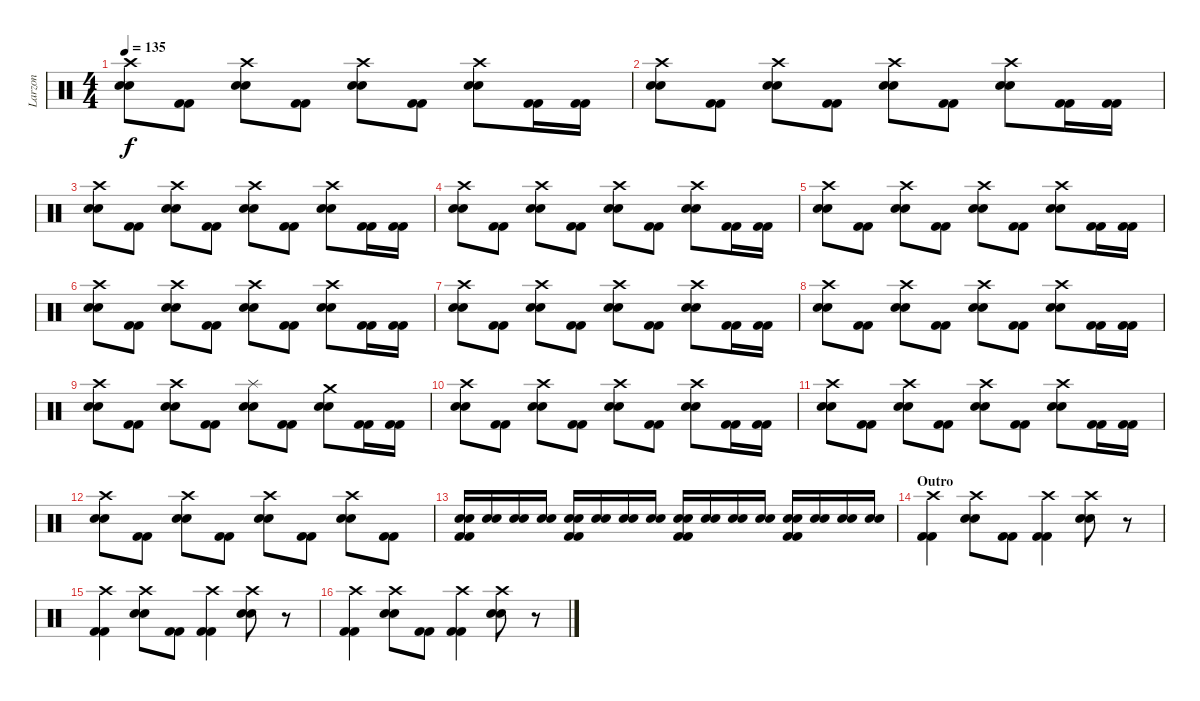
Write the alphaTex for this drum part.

\track ("Larzon" "Larzon") {instrument percussion}
\staff {score}
\articulation defaults
\ts (4 4)
\tempo 135
\clef neutral
\ks c
("Crash high (hit)" "Electric Snare (hit)" "Electric Snare (hit)").8{dy f} ("Kick (hit) 2" "Kick (hit) 2").8 ("Crash high (hit)" "Electric Snare (hit)" "Electric Snare (hit)").8 ("Kick (hit) 2" "Kick (hit) 2").8 ("Crash high (hit)" "Electric Snare (hit)" "Electric Snare (hit)").8 ("Kick (hit) 2" "Kick (hit) 2").8 ("Crash high (hit)" "Electric Snare (hit)" "Electric Snare (hit)").8 ("Kick (hit) 2" "Kick (hit) 2").16 ("Kick (hit) 2" "Kick (hit) 2").16 |
("Crash high (hit)" "Electric Snare (hit)" "Electric Snare (hit)").8 ("Kick (hit) 2" "Kick (hit) 2").8 ("Crash high (hit)" "Electric Snare (hit)" "Electric Snare (hit)").8 ("Kick (hit) 2" "Kick (hit) 2").8 ("Crash high (hit)" "Electric Snare (hit)" "Electric Snare (hit)").8 ("Kick (hit) 2" "Kick (hit) 2").8 ("Crash high (hit)" "Electric Snare (hit)" "Electric Snare (hit)").8 ("Kick (hit) 2" "Kick (hit) 2").16 ("Kick (hit) 2" "Kick (hit) 2").16 |
("Crash high (hit)" "Electric Snare (hit)" "Electric Snare (hit)").8 ("Kick (hit) 2" "Kick (hit) 2").8 ("Crash high (hit)" "Electric Snare (hit)" "Electric Snare (hit)").8 ("Kick (hit) 2" "Kick (hit) 2").8 ("Crash high (hit)" "Electric Snare (hit)" "Electric Snare (hit)").8 ("Kick (hit) 2" "Kick (hit) 2").8 ("Crash high (hit)" "Electric Snare (hit)" "Electric Snare (hit)").8 ("Kick (hit) 2" "Kick (hit) 2").16 ("Kick (hit) 2" "Kick (hit) 2").16 |
("Crash high (hit)" "Electric Snare (hit)" "Electric Snare (hit)").8 ("Kick (hit) 2" "Kick (hit) 2").8 ("Crash high (hit)" "Electric Snare (hit)" "Electric Snare (hit)").8 ("Kick (hit) 2" "Kick (hit) 2").8 ("Crash high (hit)" "Electric Snare (hit)" "Electric Snare (hit)").8 ("Kick (hit) 2" "Kick (hit) 2").8 ("Crash high (hit)" "Electric Snare (hit)" "Electric Snare (hit)").8 ("Kick (hit) 2" "Kick (hit) 2").16 ("Kick (hit) 2" "Kick (hit) 2").16 |
("Crash high (hit)" "Electric Snare (hit)" "Electric Snare (hit)").8 ("Kick (hit) 2" "Kick (hit) 2").8 ("Crash high (hit)" "Electric Snare (hit)" "Electric Snare (hit)").8 ("Kick (hit) 2" "Kick (hit) 2").8 ("Crash high (hit)" "Electric Snare (hit)" "Electric Snare (hit)").8 ("Kick (hit) 2" "Kick (hit) 2").8 ("Crash high (hit)" "Electric Snare (hit)" "Electric Snare (hit)").8 ("Kick (hit) 2" "Kick (hit) 2").16 ("Kick (hit) 2" "Kick (hit) 2").16 |
("Crash high (hit)" "Electric Snare (hit)" "Electric Snare (hit)").8 ("Kick (hit) 2" "Kick (hit) 2").8 ("Crash high (hit)" "Electric Snare (hit)" "Electric Snare (hit)").8 ("Kick (hit) 2" "Kick (hit) 2").8 ("Crash high (hit)" "Electric Snare (hit)" "Electric Snare (hit)").8 ("Kick (hit) 2" "Kick (hit) 2").8 ("Crash high (hit)" "Electric Snare (hit)" "Electric Snare (hit)").8 ("Kick (hit) 2" "Kick (hit) 2").16 ("Kick (hit) 2" "Kick (hit) 2").16 |
("Crash high (hit)" "Electric Snare (hit)" "Electric Snare (hit)").8 ("Kick (hit) 2" "Kick (hit) 2").8 ("Crash high (hit)" "Electric Snare (hit)" "Electric Snare (hit)").8 ("Kick (hit) 2" "Kick (hit) 2").8 ("Crash high (hit)" "Electric Snare (hit)" "Electric Snare (hit)").8 ("Kick (hit) 2" "Kick (hit) 2").8 ("Crash high (hit)" "Electric Snare (hit)" "Electric Snare (hit)").8 ("Kick (hit) 2" "Kick (hit) 2").16 ("Kick (hit) 2" "Kick (hit) 2").16 |
("Crash high (hit)" "Electric Snare (hit)" "Electric Snare (hit)").8 ("Kick (hit) 2" "Kick (hit) 2").8 ("Crash high (hit)" "Electric Snare (hit)" "Electric Snare (hit)").8 ("Kick (hit) 2" "Kick (hit) 2").8 ("Crash high (hit)" "Electric Snare (hit)" "Electric Snare (hit)").8 ("Kick (hit) 2" "Kick (hit) 2").8 ("Crash high (hit)" "Electric Snare (hit)" "Electric Snare (hit)").8 ("Kick (hit) 2" "Kick (hit) 2").16 ("Kick (hit) 2" "Kick (hit) 2").16 |
("Crash high (hit)" "Electric Snare (hit)" "Electric Snare (hit)").8 ("Kick (hit) 2" "Kick (hit) 2").8 ("Crash high (hit)" "Electric Snare (hit)" "Electric Snare (hit)").8 ("Kick (hit) 2" "Kick (hit) 2").8 ("Splash (hit)" "Electric Snare (hit)" "Electric Snare (hit)").8 ("Kick (hit) 2" "Kick (hit) 2").8 ("Crash medium (hit)" "Electric Snare (hit)" "Electric Snare (hit)").8 ("Kick (hit) 2" "Kick (hit) 2").16 ("Kick (hit) 2" "Kick (hit) 2").16 |
("Crash high (hit)" "Electric Snare (hit)" "Electric Snare (hit)").8 ("Kick (hit) 2" "Kick (hit) 2").8 ("Crash high (hit)" "Electric Snare (hit)" "Electric Snare (hit)").8 ("Kick (hit) 2" "Kick (hit) 2").8 ("Crash high (hit)" "Electric Snare (hit)" "Electric Snare (hit)").8 ("Kick (hit) 2" "Kick (hit) 2").8 ("Crash high (hit)" "Electric Snare (hit)" "Electric Snare (hit)").8 ("Kick (hit) 2" "Kick (hit) 2").16 ("Kick (hit) 2" "Kick (hit) 2").16 |
("Crash high (hit)" "Electric Snare (hit)" "Electric Snare (hit)").8 ("Kick (hit) 2" "Kick (hit) 2").8 ("Crash high (hit)" "Electric Snare (hit)" "Electric Snare (hit)").8 ("Kick (hit) 2" "Kick (hit) 2").8 ("Crash high (hit)" "Electric Snare (hit)" "Electric Snare (hit)").8 ("Kick (hit) 2" "Kick (hit) 2").8 ("Crash high (hit)" "Electric Snare (hit)" "Electric Snare (hit)").8 ("Kick (hit) 2" "Kick (hit) 2").16 ("Kick (hit) 2" "Kick (hit) 2").16 |
("Crash high (hit)" "Electric Snare (hit)" "Electric Snare (hit)").8 ("Kick (hit) 2" "Kick (hit) 2").8 ("Crash high (hit)" "Electric Snare (hit)" "Electric Snare (hit)").8 ("Kick (hit) 2" "Kick (hit) 2").8 ("Crash high (hit)" "Electric Snare (hit)" "Electric Snare (hit)").8 ("Kick (hit) 2" "Kick (hit) 2").8 ("Crash high (hit)" "Electric Snare (hit)" "Electric Snare (hit)").8 ("Kick (hit) 2" "Kick (hit) 2").8 |
("Electric Snare (hit)" "Electric Snare (hit)" "Kick (hit) 2" "Kick (hit) 2").16 ("Electric Snare (hit)" "Electric Snare (hit)").16 ("Electric Snare (hit)" "Electric Snare (hit)").16 ("Electric Snare (hit)" "Electric Snare (hit)").16 ("Electric Snare (hit)" "Electric Snare (hit)" "Kick (hit) 2" "Kick (hit) 2").16 ("Electric Snare (hit)" "Electric Snare (hit)").16 ("Electric Snare (hit)" "Electric Snare (hit)").16 ("Electric Snare (hit)" "Electric Snare (hit)").16 ("Electric Snare (hit)" "Electric Snare (hit)" "Kick (hit) 2" "Kick (hit) 2").16 ("Electric Snare (hit)" "Electric Snare (hit)").16 ("Electric Snare (hit)" "Electric Snare (hit)").16 ("Electric Snare (hit)" "Electric Snare (hit)").16 ("Electric Snare (hit)" "Electric Snare (hit)" "Kick (hit) 2" "Kick (hit) 2").16 ("Electric Snare (hit)" "Electric Snare (hit)").16 ("Electric Snare (hit)" "Electric Snare (hit)").16 ("Electric Snare (hit)" "Electric Snare (hit)").16 |
\section ("" "Outro")
("Crash high (hit)" "Kick (hit) 2" "Kick (hit) 2").4 ("Crash high (hit)" "Electric Snare (hit)" "Electric Snare (hit)").8 ("Kick (hit) 2" "Kick (hit) 2").8 ("Crash high (hit)" "Kick (hit) 2" "Kick (hit) 2").4 ("Crash high (hit)" "Electric Snare (hit)" "Electric Snare (hit)").8 r.8 |
("Crash high (hit)" "Kick (hit) 2" "Kick (hit) 2").4 ("Crash high (hit)" "Electric Snare (hit)" "Electric Snare (hit)").8 ("Kick (hit) 2" "Kick (hit) 2").8 ("Crash high (hit)" "Kick (hit) 2" "Kick (hit) 2").4 ("Crash high (hit)" "Electric Snare (hit)" "Electric Snare (hit)").8 r.8 |
("Crash high (hit)" "Kick (hit) 2" "Kick (hit) 2").4 ("Crash high (hit)" "Electric Snare (hit)" "Electric Snare (hit)").8 ("Kick (hit) 2" "Kick (hit) 2").8 ("Crash high (hit)" "Kick (hit) 2" "Kick (hit) 2").4 ("Crash high (hit)" "Electric Snare (hit)" "Electric Snare (hit)").8 r.8
